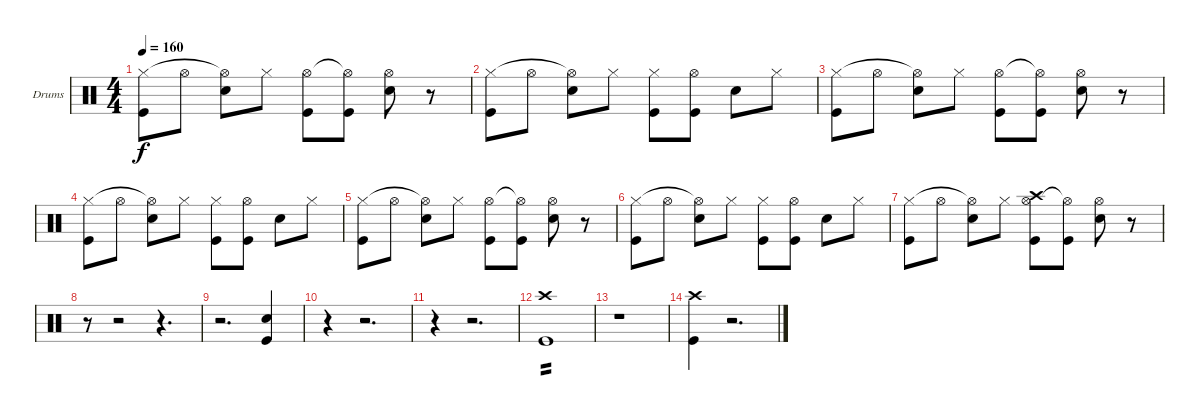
\bracketExtendMode groupsimilarinstruments
\firstSystemTrackNameOrientation horizontal
\otherSystemsTrackNameOrientation horizontal
\track ("Drumkit" "Drums") {instrument percussion}
\staff {score}
\articulation defaults
\ts (4 4)
\tempo 160
\clef neutral
\ks c
("Kick (hit)" "Hi-Hat (closed)").8{dy f} "Hi-Hat (open)".8 ("Snare (hit) 2" "Hi-Hat (open)"{t}).8 "Hi-Hat (closed)".8 ("Kick (hit)" "Hi-Hat (open)").8 ("Kick (hit)" "Hi-Hat (open)"{t}).8 ("Snare (hit) 2" "Hi-Hat (open)").8 r.8 |
("Kick (hit)" "Hi-Hat (closed)").8 "Hi-Hat (open)".8 ("Snare (hit) 2" "Hi-Hat (open)"{t}).8 "Hi-Hat (closed)".8 ("Kick (hit)" "Hi-Hat (closed)").8 ("Kick (hit)" "Hi-Hat (open)").8 "Snare (hit) 2".8 "Hi-Hat (closed)".8 |
("Kick (hit)" "Hi-Hat (closed)").8 "Hi-Hat (open)".8 ("Snare (hit) 2" "Hi-Hat (open)"{t}).8 "Hi-Hat (closed)".8 ("Kick (hit)" "Hi-Hat (open)").8 ("Kick (hit)" "Hi-Hat (open)"{t}).8 ("Snare (hit) 2" "Hi-Hat (open)").8 r.8 |
("Kick (hit)" "Hi-Hat (closed)").8 "Hi-Hat (open)".8 ("Snare (hit) 2" "Hi-Hat (open)"{t}).8 "Hi-Hat (closed)".8 ("Kick (hit)" "Hi-Hat (closed)").8 ("Kick (hit)" "Hi-Hat (open)").8 "Snare (hit) 2".8 "Hi-Hat (closed)".8 |
("Kick (hit)" "Hi-Hat (closed)").8 "Hi-Hat (open)".8 ("Snare (hit) 2" "Hi-Hat (open)"{t}).8 "Hi-Hat (closed)".8 ("Kick (hit)" "Hi-Hat (open)").8 ("Kick (hit)" "Hi-Hat (open)"{t}).8 ("Snare (hit) 2" "Hi-Hat (open)").8 r.8 |
("Kick (hit)" "Hi-Hat (closed)").8 "Hi-Hat (open)".8 ("Snare (hit) 2" "Hi-Hat (open)"{t}).8 "Hi-Hat (closed)".8 ("Kick (hit)" "Hi-Hat (closed)").8 ("Kick (hit)" "Hi-Hat (open)").8 "Snare (hit) 2".8 "Hi-Hat (closed)".8 |
("Kick (hit)" "Hi-Hat (closed)").8 "Hi-Hat (open)".8 ("Snare (hit) 2" "Hi-Hat (open)"{t}).8 "Hi-Hat (closed)".8 ("Kick (hit)" "Hi-Hat (open)" "Crash high (hit)").8 ("Kick (hit)" "Hi-Hat (open)"{t}).8 ("Snare (hit) 2" "Hi-Hat (open)").8 r.8 |
r.8 r.2 r.4{d} |
r.2{d} ("Snare (hit) 2" "Kick (hit)").4 |
r.4 r.2{d} |
r.4 r.2{d} |
("Kick (hit)" "Crash high (hit)").1{tp 2} |
r.1 |
("Kick (hit)" "Crash high (hit)").4 r.2{d}
